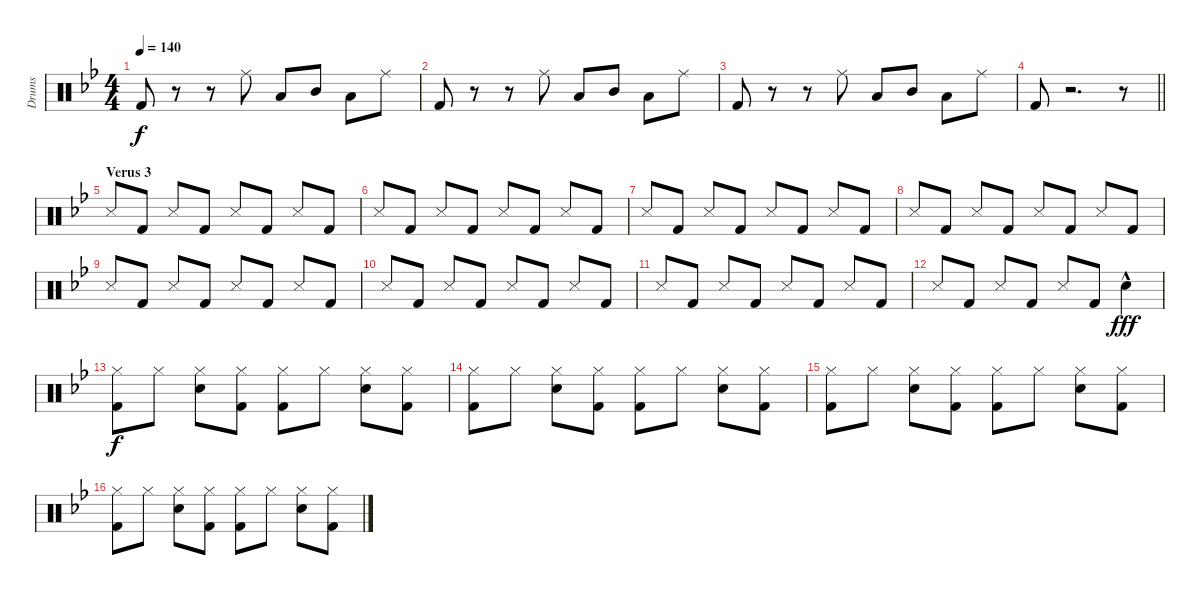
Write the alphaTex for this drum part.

\track ("Drums" "Drums") {instrument percussion}
\staff {score}
\articulation defaults
\ts (4 4)
\tempo 140
\clef neutral
\ks bb "Kick (hit) 2".8{dy f}
r.8 r.8 "Ride (middle)".8 "Low Tom (hit)".8 "Mid Tom (hit)".8 "Low Tom (hit)".8 "Ride (middle)".8 |
"Kick (hit) 2".8 r.8 r.8 "Ride (middle)".8 "Low Tom (hit)".8 "Mid Tom (hit)".8 "Low Tom (hit)".8 "Ride (middle)".8 |
"Kick (hit) 2".8 r.8 r.8 "Ride (middle)".8 "Low Tom (hit)".8 "Mid Tom (hit)".8 "Low Tom (hit)".8 "Ride (middle)".8 |
\barLineRight lightlight "Kick (hit) 2".8
r.2{d} r.8 |
\section ("" "Verus 3")
"Snare (side stick) 3".8 "Kick (hit) 2".8 "Snare (side stick) 3".8 "Kick (hit) 2".8 "Snare (side stick) 3".8 "Kick (hit) 2".8 "Snare (side stick) 3".8 "Kick (hit) 2".8 |
"Snare (side stick) 3".8 "Kick (hit) 2".8 "Snare (side stick) 3".8 "Kick (hit) 2".8 "Snare (side stick) 3".8 "Kick (hit) 2".8 "Snare (side stick) 3".8 "Kick (hit) 2".8 |
"Snare (side stick) 3".8 "Kick (hit) 2".8 "Snare (side stick) 3".8 "Kick (hit) 2".8 "Snare (side stick) 3".8 "Kick (hit) 2".8 "Snare (side stick) 3".8 "Kick (hit) 2".8 |
"Snare (side stick) 3".8 "Kick (hit) 2".8 "Snare (side stick) 3".8 "Kick (hit) 2".8 "Snare (side stick) 3".8 "Kick (hit) 2".8 "Snare (side stick) 3".8 "Kick (hit) 2".8 |
"Snare (side stick) 3".8 "Kick (hit) 2".8 "Snare (side stick) 3".8 "Kick (hit) 2".8 "Snare (side stick) 3".8 "Kick (hit) 2".8 "Snare (side stick) 3".8 "Kick (hit) 2".8 |
"Snare (side stick) 3".8 "Kick (hit) 2".8 "Snare (side stick) 3".8 "Kick (hit) 2".8 "Snare (side stick) 3".8 "Kick (hit) 2".8 "Snare (side stick) 3".8 "Kick (hit) 2".8 |
"Snare (side stick) 3".8 "Kick (hit) 2".8 "Snare (side stick) 3".8 "Kick (hit) 2".8 "Snare (side stick) 3".8 "Kick (hit) 2".8 "Snare (side stick) 3".8 "Kick (hit) 2".8 |
"Snare (side stick) 3".8 "Kick (hit) 2".8 "Snare (side stick) 3".8 "Kick (hit) 2".8 "Snare (side stick) 3".8 "Kick (hit) 2".8 "Snare (hit) 2"{hac}.4{dy fff} |
("Hi-Hat (closed)" "Kick (hit) 2").8{dy f} "Hi-Hat (closed)".8 ("Hi-Hat (closed)" "Snare (hit) 2").8 ("Hi-Hat (closed)" "Kick (hit) 2").8 ("Hi-Hat (closed)" "Kick (hit) 2").8 "Hi-Hat (closed)".8 ("Hi-Hat (closed)" "Snare (hit) 2").8 ("Hi-Hat (closed)" "Kick (hit) 2").8 |
("Hi-Hat (closed)" "Kick (hit) 2").8 "Hi-Hat (closed)".8 ("Hi-Hat (closed)" "Snare (hit) 2").8 ("Hi-Hat (closed)" "Kick (hit) 2").8 ("Hi-Hat (closed)" "Kick (hit) 2").8 "Hi-Hat (closed)".8 ("Hi-Hat (closed)" "Snare (hit) 2").8 ("Hi-Hat (closed)" "Kick (hit) 2").8 |
("Hi-Hat (closed)" "Kick (hit) 2").8 "Hi-Hat (closed)".8 ("Hi-Hat (closed)" "Snare (hit) 2").8 ("Hi-Hat (closed)" "Kick (hit) 2").8 ("Hi-Hat (closed)" "Kick (hit) 2").8 "Hi-Hat (closed)".8 ("Hi-Hat (closed)" "Snare (hit) 2").8 ("Hi-Hat (closed)" "Kick (hit) 2").8 |
("Hi-Hat (closed)" "Kick (hit) 2").8 "Hi-Hat (closed)".8 ("Hi-Hat (closed)" "Snare (hit) 2").8 ("Hi-Hat (closed)" "Kick (hit) 2").8 ("Hi-Hat (closed)" "Kick (hit) 2").8 "Hi-Hat (closed)".8 ("Hi-Hat (closed)" "Snare (hit) 2").8 ("Hi-Hat (closed)" "Kick (hit) 2").8
